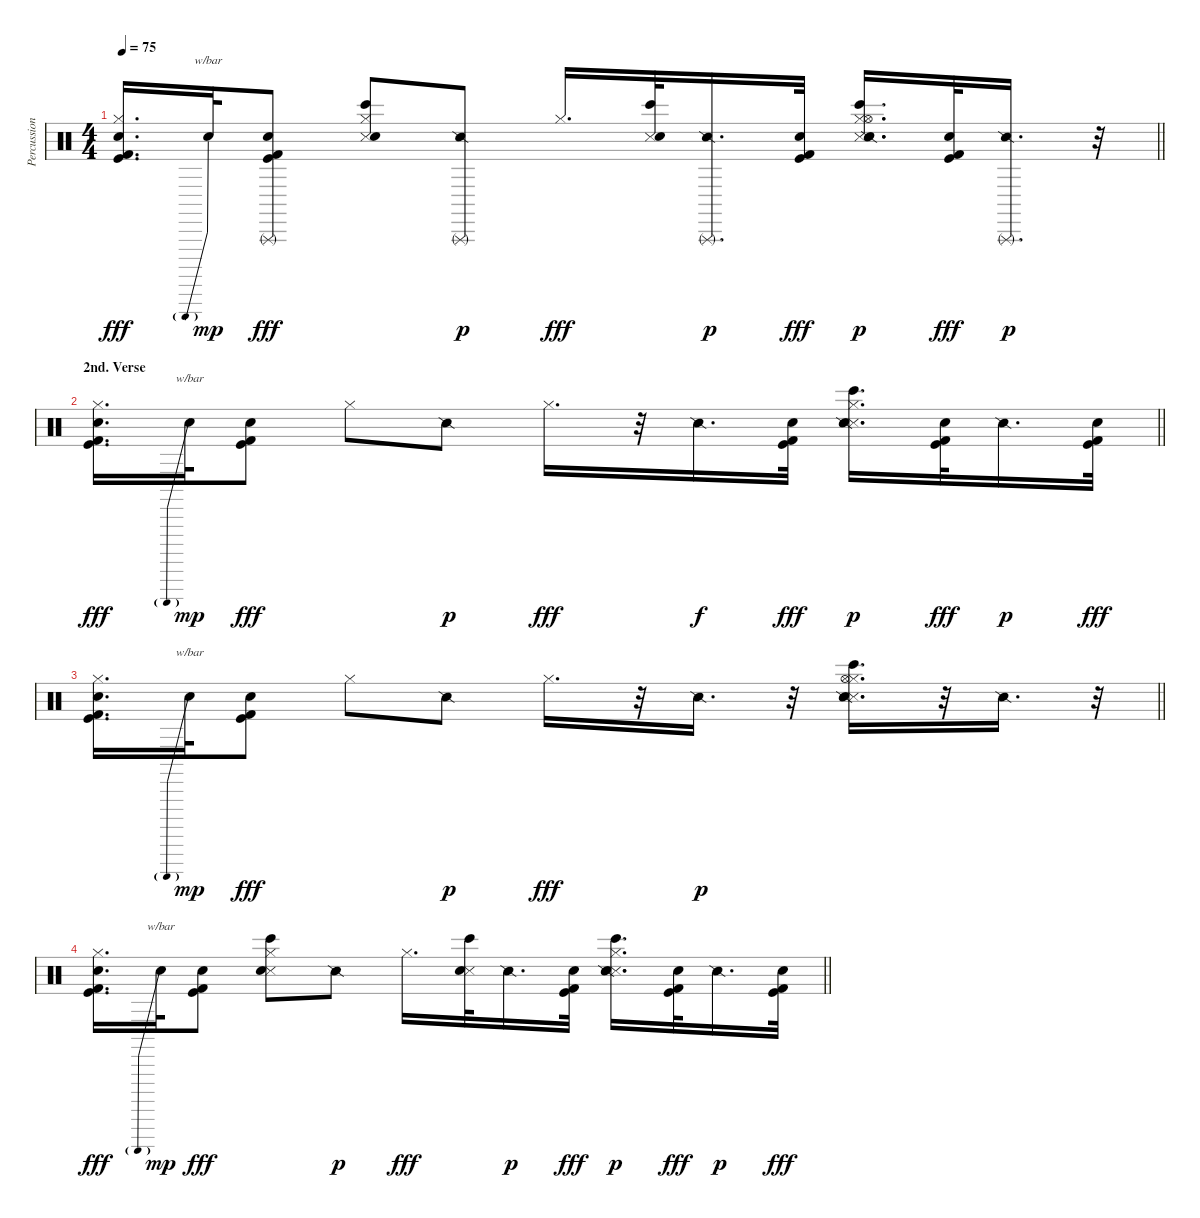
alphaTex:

\track ("Percussion" "Percussion") {instrument percussion}
\staff {score}
\articulation defaults
\ts (4 4)
\tempo 75
\clef neutral
\barLineRight lightlight
\ks c
("Hi-Hat (closed)" "Snare (hit) 2" "Kick (hit)" "Kick (hit) 2").16{d dy fff} "Hand Clap (hit)".32{tbe (predive default 0 24 60 24) dy mp} ("Triangle (rnute)" "Snare (hit) 2" "Kick (hit)" "Kick (hit) 2").8{dy fff} ("Hi-Hat (closed)" "Snare (side stick) 3" "Snare (hit) 2" "Bongo High (hit)").8 ("Triangle (rnute)" "Snare (side stick) 2").8{dy p} "Hi-Hat (closed)".16{d dy fff} ("Snare (side stick) 3" "Snare (hit) 2" "Bongo High (hit)").32 ("Triangle (rnute)" "Snare (side stick) 2").16{d dy p} ("Snare (hit) 2" "Kick (hit)" "Kick (hit) 2").32{dy fff} ("Hi-Hat (closed)" "Snare (side stick) 3" "Snare (hit) 2" "Bongo High (hit)" "Snare (side stick) 2" "Hi-Hat (open)").16{d dy p} ("Snare (hit) 2" "Kick (hit)" "Kick (hit) 2").32{dy fff} ("Triangle (rnute)" "Snare (side stick) 2").16{d dy p} r.32 |
\section ("" "2nd. Verse")
\barLineRight lightlight
("Hi-Hat (closed)" "Snare (hit) 2" "Kick (hit)" "Kick (hit) 2").16{d dy fff} "Hand Clap (hit)".32{tbe (predive default 0 24 60 24) dy mp} ("Snare (hit) 2" "Kick (hit)" "Kick (hit) 2").8{dy fff} "Hi-Hat (closed)".8 "Snare (side stick) 2".8{dy p} "Hi-Hat (closed)".16{d dy fff} r.32 "Snare (side stick) 2".16{d dy f} ("Snare (hit) 2" "Kick (hit)" "Kick (hit) 2").32{dy fff} ("Hi-Hat (closed)" "Snare (side stick) 3" "Snare (hit) 2" "Bongo High (hit)" "Snare (side stick) 2").16{d dy p} ("Snare (hit) 2" "Kick (hit)" "Kick (hit) 2").32{dy fff} "Snare (side stick) 2".16{d dy p} ("Snare (hit) 2" "Kick (hit)" "Kick (hit) 2").32{dy fff} |
\barLineRight lightlight
("Hi-Hat (closed)" "Snare (hit) 2" "Kick (hit)" "Kick (hit) 2").16{d} "Hand Clap (hit)".32{tbe (predive default 0 24 60 24) dy mp} ("Snare (hit) 2" "Kick (hit)" "Kick (hit) 2").8{dy fff} "Hi-Hat (closed)".8 "Snare (side stick) 2".8{dy p} "Hi-Hat (closed)".16{d dy fff} r.32 "Snare (side stick) 2".16{d dy p} r.32 ("Hi-Hat (closed)" "Snare (side stick) 3" "Snare (hit) 2" "Bongo High (hit)" "Snare (side stick) 2" "Hi-Hat (open)").16{d} r.32 "Snare (side stick) 2".16{d} r.32 |
\barLineRight lightlight
("Hi-Hat (closed)" "Snare (hit) 2" "Kick (hit)" "Kick (hit) 2").16{d dy fff} "Hand Clap (hit)".32{tbe (predive default 0 24 60 24) dy mp} ("Snare (hit) 2" "Kick (hit)" "Kick (hit) 2").8{dy fff} ("Hi-Hat (closed)" "Snare (side stick) 3" "Snare (hit) 2" "Bongo High (hit)").8 "Snare (side stick) 2".8{dy p} "Hi-Hat (closed)".16{d dy fff} ("Snare (side stick) 3" "Snare (hit) 2" "Bongo High (hit)").32 "Snare (side stick) 2".16{d dy p} ("Snare (hit) 2" "Kick (hit)" "Kick (hit) 2").32{dy fff} ("Hi-Hat (closed)" "Snare (side stick) 3" "Snare (hit) 2" "Bongo High (hit)" "Snare (side stick) 2").16{d dy p} ("Snare (hit) 2" "Kick (hit)" "Kick (hit) 2").32{dy fff} "Snare (side stick) 2".16{d dy p} ("Snare (hit) 2" "Kick (hit)" "Kick (hit) 2").32{dy fff}
